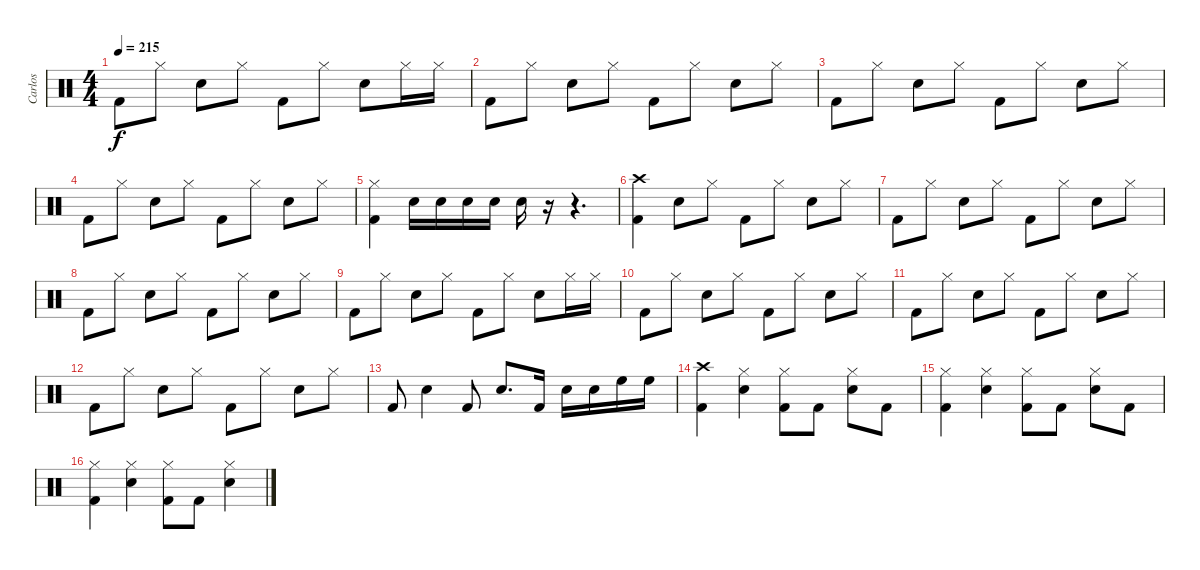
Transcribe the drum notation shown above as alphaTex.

\track ("Carlos" "Carlos") {instrument percussion}
\staff {score}
\articulation defaults
\ts (4 4)
\tempo 215
\clef neutral
\ks c "Kick (hit) 2".8{dy f} "Hi-Hat (closed)".8 "Snare (hit) 2".8 "Hi-Hat (closed)".8 "Kick (hit) 2".8 "Hi-Hat (closed)".8 "Snare (hit) 2".8 "Hi-Hat (closed)".16 "Hi-Hat (closed)".16
|
"Kick (hit) 2".8 "Hi-Hat (closed)".8 "Snare (hit) 2".8 "Hi-Hat (closed)".8 "Kick (hit) 2".8 "Hi-Hat (closed)".8 "Snare (hit) 2".8 "Hi-Hat (closed)".8 |
"Kick (hit) 2".8 "Hi-Hat (closed)".8 "Snare (hit) 2".8 "Hi-Hat (closed)".8 "Kick (hit) 2".8 "Hi-Hat (closed)".8 "Snare (hit) 2".8 "Hi-Hat (closed)".8 |
"Kick (hit) 2".8 "Hi-Hat (closed)".8 "Snare (hit) 2".8 "Hi-Hat (closed)".8 "Kick (hit) 2".8 "Hi-Hat (closed)".8 "Snare (hit) 2".8 "Hi-Hat (closed)".8 |
("Hi-Hat (closed)" "Kick (hit) 2").4 "Snare (hit) 2".16 "Snare (hit) 2".16 "Snare (hit) 2".16 "Snare (hit) 2".16 "Snare (hit) 2".16 r.16 r.4{d} |
("Crash high (hit)" "Kick (hit) 2").4 "Snare (hit) 2".8 "Hi-Hat (closed)".8 "Kick (hit) 2".8 "Hi-Hat (closed)".8 "Snare (hit) 2".8 "Hi-Hat (closed)".8 |
"Kick (hit) 2".8 "Hi-Hat (closed)".8 "Snare (hit) 2".8 "Hi-Hat (closed)".8 "Kick (hit) 2".8 "Hi-Hat (closed)".8 "Snare (hit) 2".8 "Hi-Hat (closed)".8 |
"Kick (hit) 2".8 "Hi-Hat (closed)".8 "Snare (hit) 2".8 "Hi-Hat (closed)".8 "Kick (hit) 2".8 "Hi-Hat (closed)".8 "Snare (hit) 2".8 "Hi-Hat (closed)".8 |
"Kick (hit) 2".8 "Hi-Hat (closed)".8 "Snare (hit) 2".8 "Hi-Hat (closed)".8 "Kick (hit) 2".8 "Hi-Hat (closed)".8 "Snare (hit) 2".8 "Hi-Hat (closed)".16 "Hi-Hat (closed)".16 |
"Kick (hit) 2".8 "Hi-Hat (closed)".8 "Snare (hit) 2".8 "Hi-Hat (closed)".8 "Kick (hit) 2".8 "Hi-Hat (closed)".8 "Snare (hit) 2".8 "Hi-Hat (closed)".8 |
"Kick (hit) 2".8 "Hi-Hat (closed)".8 "Snare (hit) 2".8 "Hi-Hat (closed)".8 "Kick (hit) 2".8 "Hi-Hat (closed)".8 "Snare (hit) 2".8 "Hi-Hat (closed)".8 |
"Kick (hit) 2".8 "Hi-Hat (closed)".8 "Snare (hit) 2".8 "Hi-Hat (closed)".8 "Kick (hit) 2".8 "Hi-Hat (closed)".8 "Snare (hit) 2".8 "Hi-Hat (closed)".8 |
"Kick (hit) 2".8 "Snare (hit) 2".4 "Kick (hit) 2".8 "Snare (hit) 2".8{d} "Kick (hit) 2".16 "Snare (hit) 2".16 "Snare (hit) 2".16 "High Floor Tom (hit)".16 "High Floor Tom (hit)".16 |
("Crash high (hit)" "Kick (hit) 2").4 ("Hi-Hat (closed)" "Snare (hit) 2").4 ("Hi-Hat (closed)" "Kick (hit) 2").8 "Kick (hit) 2".8 ("Hi-Hat (closed)" "Snare (hit) 2").8 "Kick (hit) 2".8 |
("Hi-Hat (closed)" "Kick (hit) 2").4 ("Hi-Hat (closed)" "Snare (hit) 2").4 ("Hi-Hat (closed)" "Kick (hit) 2").8 "Kick (hit) 2".8 ("Hi-Hat (closed)" "Snare (hit) 2").8 "Kick (hit) 2".8 |
("Hi-Hat (closed)" "Kick (hit) 2").4 ("Hi-Hat (closed)" "Snare (hit) 2").4 ("Hi-Hat (closed)" "Kick (hit) 2").8 "Kick (hit) 2".8 ("Hi-Hat (closed)" "Snare (hit) 2").4
